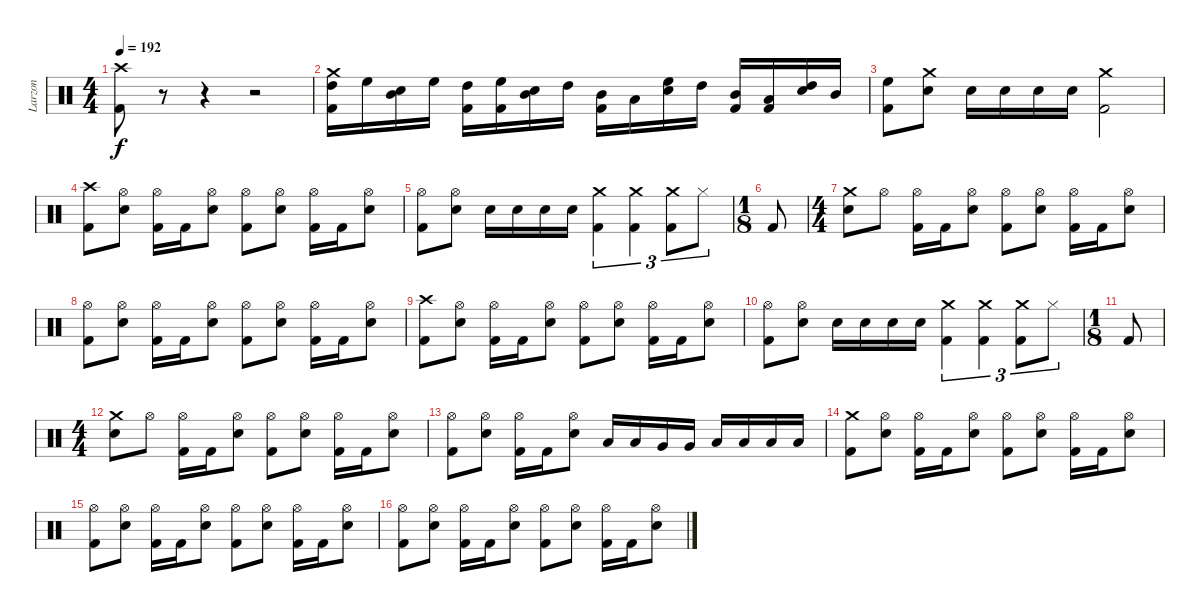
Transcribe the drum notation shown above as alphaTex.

\track ("Larzon" "Larzon") {instrument percussion}
\staff {score}
\articulation defaults
\ts (4 4)
\tempo 192
\clef neutral
\ks c
("Crash high (hit)" "Kick (hit) 2").8{dy f} r.8 r.4 r.2 |
("Crash medium (hit)" "High Tom (hit)" "Kick (hit) 2").16 "High Floor Tom (hit)".16 ("Mid Tom (hit)" "Electric Snare (hit)").16 "High Floor Tom (hit)".16 ("High Tom (hit)" "Kick (hit) 2").16 ("High Floor Tom (hit)" "Kick (hit) 2").16 ("Mid Tom (hit)" "Electric Snare (hit)").16 "High Tom (hit)".16 ("Mid Tom (hit)" "Kick (hit) 2").16 "Low Tom (hit)".16 ("High Floor Tom (hit)" "Electric Snare (hit)").16 "High Tom (hit)".16 ("Mid Tom (hit)" "Kick (hit) 2").16 ("Low Tom (hit)" "Kick (hit) 2").16 ("High Tom (hit)" "Electric Snare (hit)").16 "Mid Tom (hit)".16 |
("High Floor Tom (hit)" "Kick (hit) 2").8 ("Crash medium (hit)" "Electric Snare (hit)").8 "Electric Snare (hit)".16 "Electric Snare (hit)".16 "Electric Snare (hit)".16 "Electric Snare (hit)".16 ("Crash medium (hit)" "Kick (hit) 2").2 |
("Crash high (hit)" "Kick (hit) 2").8 ("Hi-Hat (open)" "Electric Snare (hit)").8 ("Hi-Hat (open)" "Kick (hit) 2").16 "Kick (hit) 2".16 ("Hi-Hat (open)" "Electric Snare (hit)").8 ("Hi-Hat (open)" "Kick (hit) 2").8 ("Hi-Hat (open)" "Electric Snare (hit)").8 ("Hi-Hat (open)" "Kick (hit) 2").16 "Kick (hit) 2".16 ("Hi-Hat (open)" "Electric Snare (hit)").8 |
("Hi-Hat (open)" "Kick (hit) 2").8 ("Hi-Hat (open)" "Electric Snare (hit)").8 "Electric Snare (hit)".16 "Electric Snare (hit)".16 "Electric Snare (hit)".16 "Electric Snare (hit)".16 ("Crash medium (hit)" "Kick (hit) 2").4{tu (3 2)} ("Crash medium (hit)" "Kick (hit) 2").4{tu (3 2)} ("Crash medium (hit)" "Kick (hit) 2").8{tu (3 2)} "Hi-Hat (closed)".8{tu (3 2)} |
\ts (1 8)
"Kick (hit) 2".8 |
\ts (4 4)
("Crash medium (hit)" "Electric Snare (hit)").8 "Hi-Hat (open)".8 ("Hi-Hat (open)" "Kick (hit) 2").16 "Kick (hit) 2".16 ("Hi-Hat (open)" "Electric Snare (hit)").8 ("Hi-Hat (open)" "Kick (hit) 2").8 ("Hi-Hat (open)" "Electric Snare (hit)").8 ("Hi-Hat (open)" "Kick (hit) 2").16 "Kick (hit) 2".16 ("Hi-Hat (open)" "Electric Snare (hit)").8 |
("Hi-Hat (open)" "Kick (hit) 2").8 ("Hi-Hat (open)" "Electric Snare (hit)").8 ("Hi-Hat (open)" "Kick (hit) 2").16 "Kick (hit) 2".16 ("Hi-Hat (open)" "Electric Snare (hit)").8 ("Hi-Hat (open)" "Kick (hit) 2").8 ("Hi-Hat (open)" "Electric Snare (hit)").8 ("Hi-Hat (open)" "Kick (hit) 2").16 "Kick (hit) 2".16 ("Hi-Hat (open)" "Electric Snare (hit)").8 |
("Crash high (hit)" "Kick (hit) 2").8 ("Hi-Hat (open)" "Electric Snare (hit)").8 ("Hi-Hat (open)" "Kick (hit) 2").16 "Kick (hit) 2".16 ("Hi-Hat (open)" "Electric Snare (hit)").8 ("Hi-Hat (open)" "Kick (hit) 2").8 ("Hi-Hat (open)" "Electric Snare (hit)").8 ("Hi-Hat (open)" "Kick (hit) 2").16 "Kick (hit) 2".16 ("Hi-Hat (open)" "Electric Snare (hit)").8 |
("Hi-Hat (open)" "Kick (hit) 2").8 ("Hi-Hat (open)" "Electric Snare (hit)").8 "Electric Snare (hit)".16 "Electric Snare (hit)".16 "Electric Snare (hit)".16 "Electric Snare (hit)".16 ("Crash medium (hit)" "Kick (hit) 2").4{tu (3 2)} ("Crash medium (hit)" "Kick (hit) 2").4{tu (3 2)} ("Crash medium (hit)" "Kick (hit) 2").8{tu (3 2)} "Hi-Hat (closed)".8{tu (3 2)} |
\ts (1 8)
"Kick (hit) 2".8 |
\ts (4 4)
("Crash medium (hit)" "Electric Snare (hit)").8 "Hi-Hat (open)".8 ("Hi-Hat (open)" "Kick (hit) 2").16 "Kick (hit) 2".16 ("Hi-Hat (open)" "Electric Snare (hit)").8 ("Hi-Hat (open)" "Kick (hit) 2").8 ("Hi-Hat (open)" "Electric Snare (hit)").8 ("Hi-Hat (open)" "Kick (hit) 2").16 "Kick (hit) 2".16 ("Hi-Hat (open)" "Electric Snare (hit)").8 |
("Hi-Hat (open)" "Kick (hit) 2").8 ("Hi-Hat (open)" "Electric Snare (hit)").8 ("Hi-Hat (open)" "Kick (hit) 2").16 "Kick (hit) 2".16 ("Hi-Hat (open)" "Electric Snare (hit)").8 "Low Tom (hit)".16 "Low Tom (hit)".16 "Very Low Tom (hit)".16 "Very Low Tom (hit)".16 "Low Floor Tom (hit)".16 "Low Floor Tom (hit)".16 "Low Floor Tom (hit)".16 "Low Floor Tom (hit)".16 |
("Crash medium (hit)" "Kick (hit) 2").8 ("Hi-Hat (open)" "Electric Snare (hit)").8 ("Hi-Hat (open)" "Kick (hit) 2").16 "Kick (hit) 2".16 ("Hi-Hat (open)" "Electric Snare (hit)").8 ("Hi-Hat (open)" "Kick (hit) 2").8 ("Hi-Hat (open)" "Electric Snare (hit)").8 ("Hi-Hat (open)" "Kick (hit) 2").16 "Kick (hit) 2".16 ("Hi-Hat (open)" "Electric Snare (hit)").8 |
("Hi-Hat (open)" "Kick (hit) 2").8 ("Hi-Hat (open)" "Electric Snare (hit)").8 ("Hi-Hat (open)" "Kick (hit) 2").16 "Kick (hit) 2".16 ("Hi-Hat (open)" "Electric Snare (hit)").8 ("Hi-Hat (open)" "Kick (hit) 2").8 ("Hi-Hat (open)" "Electric Snare (hit)").8 ("Hi-Hat (open)" "Kick (hit) 2").16 "Kick (hit) 2".16 ("Hi-Hat (open)" "Electric Snare (hit)").8 |
("Hi-Hat (open)" "Kick (hit) 2").8 ("Hi-Hat (open)" "Electric Snare (hit)").8 ("Hi-Hat (open)" "Kick (hit) 2").16 "Kick (hit) 2".16 ("Hi-Hat (open)" "Electric Snare (hit)").8 ("Hi-Hat (open)" "Kick (hit) 2").8 ("Hi-Hat (open)" "Electric Snare (hit)").8 ("Hi-Hat (open)" "Kick (hit) 2").16 "Kick (hit) 2".16 ("Hi-Hat (open)" "Electric Snare (hit)").8
